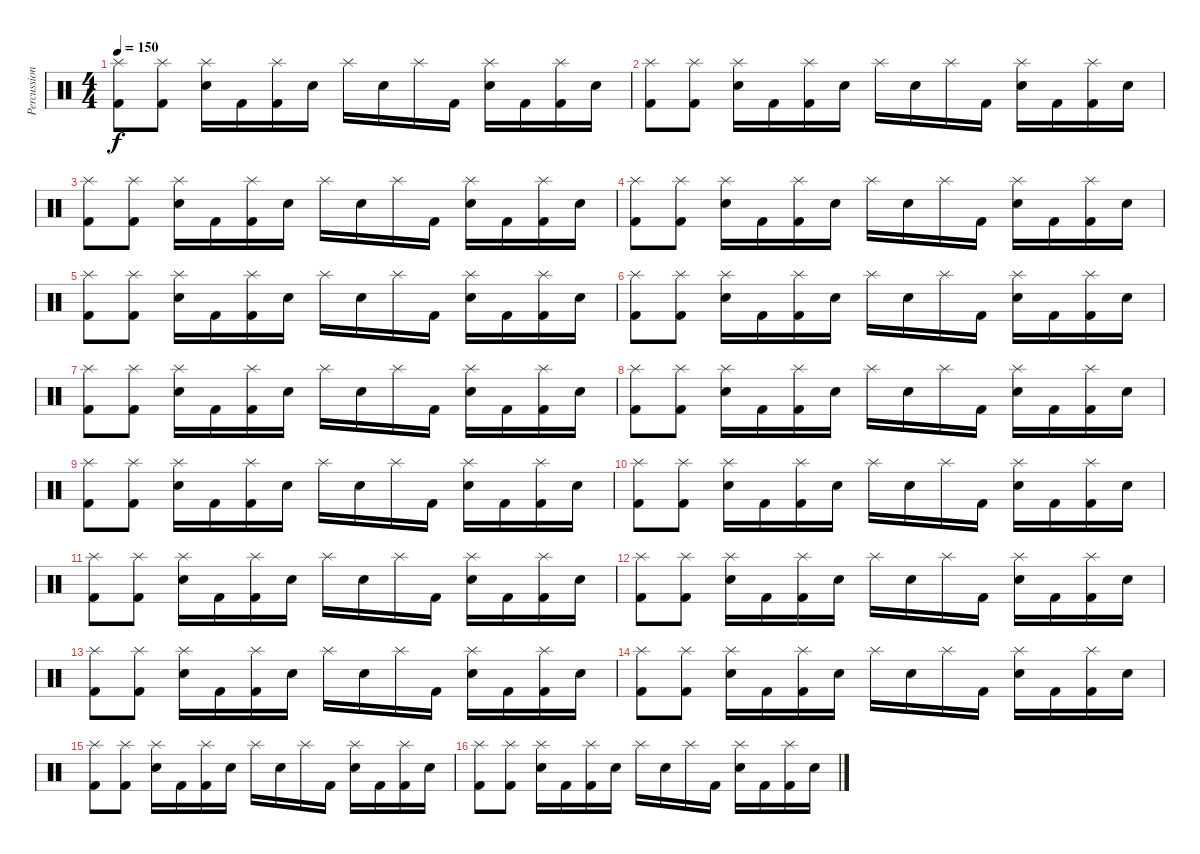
\track ("Percussions" "Percussion") {instrument percussion}
\staff {score}
\articulation defaults
\ts (4 4)
\tempo 150
\clef neutral
\ks c
("Splash (hit)" "Kick (hit) 2").8{dy f} ("Splash (hit)" "Kick (hit) 2").8 ("Splash (hit)" "Electric Snare (hit)").16 "Kick (hit) 2".16 ("Splash (hit)" "Kick (hit) 2").16 "Electric Snare (hit)".16 "Splash (hit)".16 "Electric Snare (hit)".16 "Splash (hit)".16 "Kick (hit) 2".16 ("Splash (hit)" "Electric Snare (hit)").16 "Kick (hit) 2".16 ("Splash (hit)" "Kick (hit) 2").16 "Electric Snare (hit)".16 |
("Splash (hit)" "Kick (hit) 2").8 ("Splash (hit)" "Kick (hit) 2").8 ("Splash (hit)" "Electric Snare (hit)").16 "Kick (hit) 2".16 ("Splash (hit)" "Kick (hit) 2").16 "Electric Snare (hit)".16 "Splash (hit)".16 "Electric Snare (hit)".16 "Splash (hit)".16 "Kick (hit) 2".16 ("Splash (hit)" "Electric Snare (hit)").16 "Kick (hit) 2".16 ("Splash (hit)" "Kick (hit) 2").16 "Electric Snare (hit)".16 |
("Splash (hit)" "Kick (hit) 2").8 ("Splash (hit)" "Kick (hit) 2").8 ("Splash (hit)" "Electric Snare (hit)").16 "Kick (hit) 2".16 ("Splash (hit)" "Kick (hit) 2").16 "Electric Snare (hit)".16 "Splash (hit)".16 "Electric Snare (hit)".16 "Splash (hit)".16 "Kick (hit) 2".16 ("Splash (hit)" "Electric Snare (hit)").16 "Kick (hit) 2".16 ("Splash (hit)" "Kick (hit) 2").16 "Electric Snare (hit)".16 |
("Splash (hit)" "Kick (hit) 2").8 ("Splash (hit)" "Kick (hit) 2").8 ("Splash (hit)" "Electric Snare (hit)").16 "Kick (hit) 2".16 ("Splash (hit)" "Kick (hit) 2").16 "Electric Snare (hit)".16 "Splash (hit)".16 "Electric Snare (hit)".16 "Splash (hit)".16 "Kick (hit) 2".16 ("Splash (hit)" "Electric Snare (hit)").16 "Kick (hit) 2".16 ("Splash (hit)" "Kick (hit) 2").16 "Electric Snare (hit)".16 |
("Splash (hit)" "Kick (hit) 2").8 ("Splash (hit)" "Kick (hit) 2").8 ("Splash (hit)" "Electric Snare (hit)").16 "Kick (hit) 2".16 ("Splash (hit)" "Kick (hit) 2").16 "Electric Snare (hit)".16 "Splash (hit)".16 "Electric Snare (hit)".16 "Splash (hit)".16 "Kick (hit) 2".16 ("Splash (hit)" "Electric Snare (hit)").16 "Kick (hit) 2".16 ("Splash (hit)" "Kick (hit) 2").16 "Electric Snare (hit)".16 |
("Splash (hit)" "Kick (hit) 2").8 ("Splash (hit)" "Kick (hit) 2").8 ("Splash (hit)" "Electric Snare (hit)").16 "Kick (hit) 2".16 ("Splash (hit)" "Kick (hit) 2").16 "Electric Snare (hit)".16 "Splash (hit)".16 "Electric Snare (hit)".16 "Splash (hit)".16 "Kick (hit) 2".16 ("Splash (hit)" "Electric Snare (hit)").16 "Kick (hit) 2".16 ("Splash (hit)" "Kick (hit) 2").16 "Electric Snare (hit)".16 |
("Splash (hit)" "Kick (hit) 2").8 ("Splash (hit)" "Kick (hit) 2").8 ("Splash (hit)" "Electric Snare (hit)").16 "Kick (hit) 2".16 ("Splash (hit)" "Kick (hit) 2").16 "Electric Snare (hit)".16 "Splash (hit)".16 "Electric Snare (hit)".16 "Splash (hit)".16 "Kick (hit) 2".16 ("Splash (hit)" "Electric Snare (hit)").16 "Kick (hit) 2".16 ("Splash (hit)" "Kick (hit) 2").16 "Electric Snare (hit)".16 |
("Splash (hit)" "Kick (hit) 2").8 ("Splash (hit)" "Kick (hit) 2").8 ("Splash (hit)" "Electric Snare (hit)").16 "Kick (hit) 2".16 ("Splash (hit)" "Kick (hit) 2").16 "Electric Snare (hit)".16 "Splash (hit)".16 "Electric Snare (hit)".16 "Splash (hit)".16 "Kick (hit) 2".16 ("Splash (hit)" "Electric Snare (hit)").16 "Kick (hit) 2".16 ("Splash (hit)" "Kick (hit) 2").16 "Electric Snare (hit)".16 |
("Splash (hit)" "Kick (hit) 2").8 ("Splash (hit)" "Kick (hit) 2").8 ("Splash (hit)" "Electric Snare (hit)").16 "Kick (hit) 2".16 ("Splash (hit)" "Kick (hit) 2").16 "Electric Snare (hit)".16 "Splash (hit)".16 "Electric Snare (hit)".16 "Splash (hit)".16 "Kick (hit) 2".16 ("Splash (hit)" "Electric Snare (hit)").16 "Kick (hit) 2".16 ("Splash (hit)" "Kick (hit) 2").16 "Electric Snare (hit)".16 |
("Splash (hit)" "Kick (hit) 2").8 ("Splash (hit)" "Kick (hit) 2").8 ("Splash (hit)" "Electric Snare (hit)").16 "Kick (hit) 2".16 ("Splash (hit)" "Kick (hit) 2").16 "Electric Snare (hit)".16 "Splash (hit)".16 "Electric Snare (hit)".16 "Splash (hit)".16 "Kick (hit) 2".16 ("Splash (hit)" "Electric Snare (hit)").16 "Kick (hit) 2".16 ("Splash (hit)" "Kick (hit) 2").16 "Electric Snare (hit)".16 |
("Splash (hit)" "Kick (hit) 2").8 ("Splash (hit)" "Kick (hit) 2").8 ("Splash (hit)" "Electric Snare (hit)").16 "Kick (hit) 2".16 ("Splash (hit)" "Kick (hit) 2").16 "Electric Snare (hit)".16 "Splash (hit)".16 "Electric Snare (hit)".16 "Splash (hit)".16 "Kick (hit) 2".16 ("Splash (hit)" "Electric Snare (hit)").16 "Kick (hit) 2".16 ("Splash (hit)" "Kick (hit) 2").16 "Electric Snare (hit)".16 |
("Splash (hit)" "Kick (hit) 2").8 ("Splash (hit)" "Kick (hit) 2").8 ("Splash (hit)" "Electric Snare (hit)").16 "Kick (hit) 2".16 ("Splash (hit)" "Kick (hit) 2").16 "Electric Snare (hit)".16 "Splash (hit)".16 "Electric Snare (hit)".16 "Splash (hit)".16 "Kick (hit) 2".16 ("Splash (hit)" "Electric Snare (hit)").16 "Kick (hit) 2".16 ("Splash (hit)" "Kick (hit) 2").16 "Electric Snare (hit)".16 |
("Splash (hit)" "Kick (hit) 2").8 ("Splash (hit)" "Kick (hit) 2").8 ("Splash (hit)" "Electric Snare (hit)").16 "Kick (hit) 2".16 ("Splash (hit)" "Kick (hit) 2").16 "Electric Snare (hit)".16 "Splash (hit)".16 "Electric Snare (hit)".16 "Splash (hit)".16 "Kick (hit) 2".16 ("Splash (hit)" "Electric Snare (hit)").16 "Kick (hit) 2".16 ("Splash (hit)" "Kick (hit) 2").16 "Electric Snare (hit)".16 |
("Splash (hit)" "Kick (hit) 2").8 ("Splash (hit)" "Kick (hit) 2").8 ("Splash (hit)" "Electric Snare (hit)").16 "Kick (hit) 2".16 ("Splash (hit)" "Kick (hit) 2").16 "Electric Snare (hit)".16 "Splash (hit)".16 "Electric Snare (hit)".16 "Splash (hit)".16 "Kick (hit) 2".16 ("Splash (hit)" "Electric Snare (hit)").16 "Kick (hit) 2".16 ("Splash (hit)" "Kick (hit) 2").16 "Electric Snare (hit)".16 |
("Splash (hit)" "Kick (hit) 2").8 ("Splash (hit)" "Kick (hit) 2").8 ("Splash (hit)" "Electric Snare (hit)").16 "Kick (hit) 2".16 ("Splash (hit)" "Kick (hit) 2").16 "Electric Snare (hit)".16 "Splash (hit)".16 "Electric Snare (hit)".16 "Splash (hit)".16 "Kick (hit) 2".16 ("Splash (hit)" "Electric Snare (hit)").16 "Kick (hit) 2".16 ("Splash (hit)" "Kick (hit) 2").16 "Electric Snare (hit)".16 |
("Splash (hit)" "Kick (hit) 2").8 ("Splash (hit)" "Kick (hit) 2").8 ("Splash (hit)" "Electric Snare (hit)").16 "Kick (hit) 2".16 ("Splash (hit)" "Kick (hit) 2").16 "Electric Snare (hit)".16 "Splash (hit)".16 "Electric Snare (hit)".16 "Splash (hit)".16 "Kick (hit) 2".16 ("Splash (hit)" "Electric Snare (hit)").16 "Kick (hit) 2".16 ("Splash (hit)" "Kick (hit) 2").16 "Electric Snare (hit)".16
